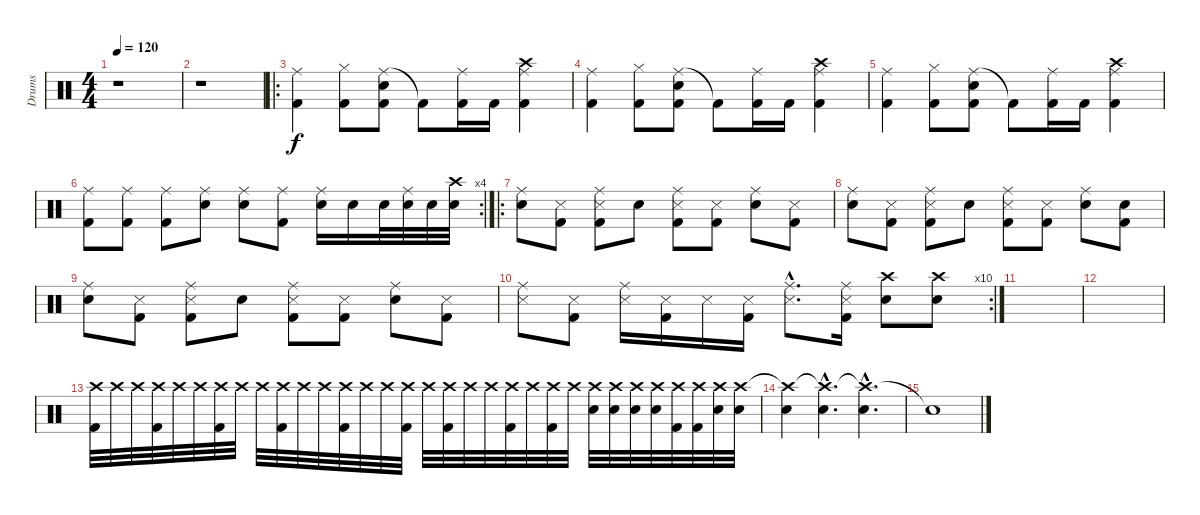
\track ("Drums" "Drums") {instrument percussion}
\staff {score}
\articulation defaults
\ts (4 4)
\tempo 120
\clef neutral
\ks c
r.1{dy f} |
r.1 |
\ro
("Ride (middle)" "Kick (hit) 2").4 ("Hi-Hat (closed)" "Kick (hit) 2").8 ("Ride (middle)" "Snare (hit) 2" "Kick (hit) 2").8 "Kick (hit) 2"{t}.8 ("Ride (middle)" "Kick (hit) 2").16 "Kick (hit) 2".16 ("Ride (middle)" "Crash high (hit)" "Kick (hit) 2").4 |
("Ride (middle)" "Kick (hit) 2").4 ("Hi-Hat (closed)" "Kick (hit) 2").8 ("Ride (middle)" "Snare (hit) 2" "Kick (hit) 2").8 "Kick (hit) 2"{t}.8 ("Ride (middle)" "Kick (hit) 2").16 "Kick (hit) 2".16 ("Ride (middle)" "Crash high (hit)" "Kick (hit) 2").4 |
("Ride (middle)" "Kick (hit) 2").4 ("Hi-Hat (closed)" "Kick (hit) 2").8 ("Ride (middle)" "Snare (hit) 2" "Kick (hit) 2").8 "Kick (hit) 2"{t}.8 ("Ride (middle)" "Kick (hit) 2").16 "Kick (hit) 2".16 ("Ride (middle)" "Crash high (hit)" "Kick (hit) 2").4 |
\rc 4
("Ride (middle)" "Kick (hit) 2").8 ("Ride (middle)" "Kick (hit) 2").8 ("Ride (middle)" "Kick (hit) 2").8 ("Ride (middle)" "Snare (hit) 2").8 ("Ride (middle)" "Snare (hit) 2").8 ("Ride (middle)" "Kick (hit) 2").8 ("Ride (middle)" "Snare (hit) 2").16 "Snare (hit) 2".16 "Snare (hit) 2".32 ("Ride (middle)" "Snare (hit) 2").32 "Snare (hit) 2".32 ("Crash high (hit)" "Snare (hit) 2").32 |
\ro
("Ride (middle)" "Snare (hit) 2").8 ("Kick (hit) 2" "Snare (side stick) 3").8 ("Ride (middle)" "Kick (hit) 2" "Snare (side stick) 3").8 "Snare (hit) 2".8 ("Ride (middle)" "Kick (hit) 2" "Snare (side stick) 3").8 ("Kick (hit) 2" "Snare (side stick) 3").8 ("Ride (middle)" "Snare (hit) 2").8 ("Kick (hit) 2" "Snare (side stick) 3").8 |
("Ride (middle)" "Snare (hit) 2").8 ("Kick (hit) 2" "Snare (side stick) 3").8 ("Ride (middle)" "Kick (hit) 2" "Snare (side stick) 3").8 "Snare (hit) 2".8 ("Ride (middle)" "Kick (hit) 2" "Snare (side stick) 3").8 ("Kick (hit) 2" "Snare (side stick) 3").8 ("Ride (middle)" "Snare (hit) 2").8 ("Snare (hit) 2" "Kick (hit) 2").8 |
("Ride (middle)" "Snare (hit) 2").8 ("Kick (hit) 2" "Snare (side stick) 3").8 ("Ride (middle)" "Kick (hit) 2" "Snare (side stick) 3").8 "Snare (hit) 2".8 ("Ride (middle)" "Kick (hit) 2" "Snare (side stick) 3").8 ("Kick (hit) 2" "Snare (side stick) 3").8 ("Ride (middle)" "Snare (hit) 2").8 ("Kick (hit) 2" "Snare (side stick) 3").8 |
\rc 10
("Ride (middle)" "Snare (side stick) 3").8 ("Kick (hit) 2" "Snare (side stick) 3").8 ("Ride (middle)" "Snare (side stick) 3").16 ("Kick (hit) 2" "Snare (side stick) 3").16 "Snare (side stick) 3".16 ("Kick (hit) 2" "Snare (side stick) 3").16 ("Ride (middle)"{hac} "Snare (side stick) 3"{hac}).8{d} ("Ride (middle)" "Kick (hit) 2" "Snare (side stick) 3").16 ("Crash high (hit)" "Snare (hit) 2").8 ("Crash high (hit)" "Snare (hit) 2").8 |
|
|
("Crash high (hit)" "Kick (hit) 2").32 "Crash high (hit)".32 "Crash high (hit)".32 ("Crash high (hit)" "Kick (hit) 2").32 "Crash high (hit)".32 "Crash high (hit)".32 ("Crash high (hit)" "Kick (hit) 2").32 "Crash high (hit)".32 "Crash high (hit)".32 ("Crash high (hit)" "Kick (hit) 2").32 "Crash high (hit)".32 "Crash high (hit)".32 ("Crash high (hit)" "Kick (hit) 2").32 "Crash high (hit)".32 "Crash high (hit)".32 ("Crash high (hit)" "Kick (hit) 2").32 "Crash high (hit)".32 ("Crash high (hit)" "Kick (hit) 2").32 "Crash high (hit)".32 "Crash high (hit)".32 ("Crash high (hit)" "Kick (hit) 2").32 "Crash high (hit)".32 ("Crash high (hit)" "Kick (hit) 2").32 "Crash high (hit)".32 ("Crash high (hit)" "Snare (hit) 2").32 ("Crash high (hit)" "Snare (hit) 2").32 ("Crash high (hit)" "Snare (hit) 2").32 ("Crash high (hit)" "Snare (hit) 2").32 ("Crash high (hit)" "Kick (hit) 2").32 ("Crash high (hit)" "Kick (hit) 2").32 ("Crash high (hit)" "Snare (hit) 2").32 ("Crash high (hit)" "Snare (hit) 2").32 |
("Crash high (hit)"{t} "Snare (hit) 2").4 ("Crash high (hit)"{hac t} "Snare (hit) 2"{hac}).4{d} ("Crash high (hit)"{hac t} "Snare (hit) 2"{hac}).4{d} |
"Snare (hit) 2"{t}.1
